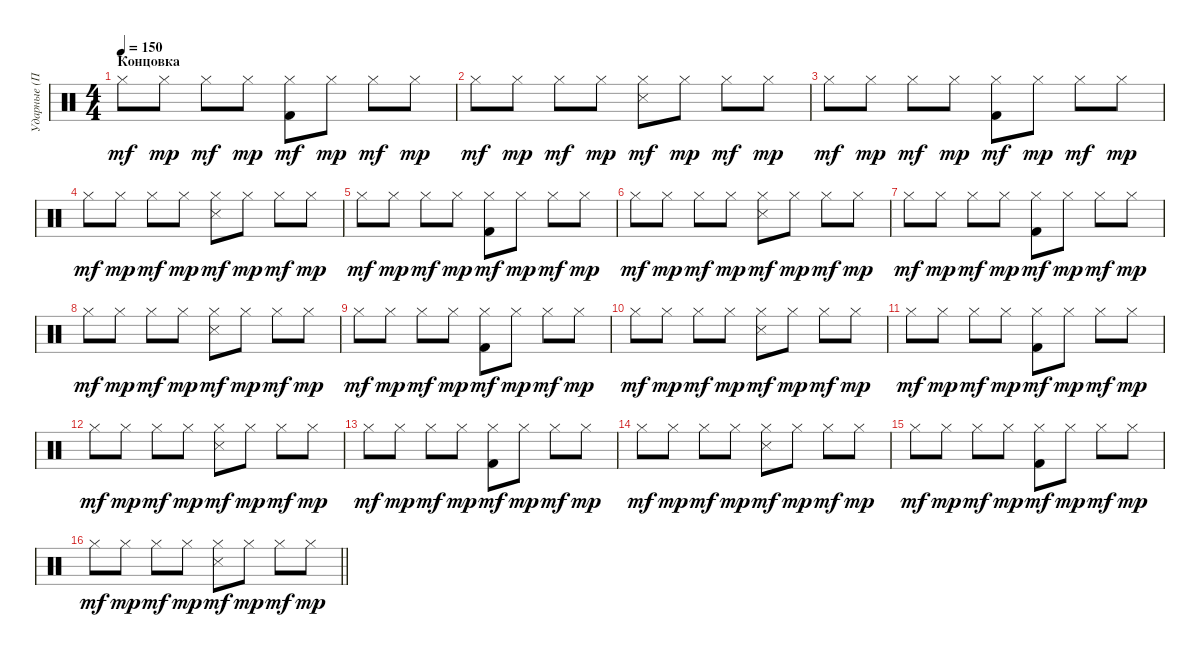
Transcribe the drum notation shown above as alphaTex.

\track ("Ударные (Поручик)" "Ударные (П") {instrument percussion}
\staff {score}
\articulation defaults
\ts (4 4)
\section ("" "Концовка")
\tempo 150
\clef neutral
\ks c "Hi-Hat (closed)".8{dy mf} "Hi-Hat (closed)".8{dy mp} "Hi-Hat (closed)".8{dy mf} "Hi-Hat (closed)".8{dy mp}
("Hi-Hat (closed)" "Kick (hit) 2").8{dy mf} "Hi-Hat (closed)".8{dy mp} "Hi-Hat (closed)".8{dy mf} "Hi-Hat (closed)".8{dy mp} |
"Hi-Hat (closed)".8{dy mf} "Hi-Hat (closed)".8{dy mp} "Hi-Hat (closed)".8{dy mf} "Hi-Hat (closed)".8{dy mp} ("Hi-Hat (closed)" "Snare (side stick) 3").8{dy mf} "Hi-Hat (closed)".8{dy mp} "Hi-Hat (closed)".8{dy mf} "Hi-Hat (closed)".8{dy mp} |
"Hi-Hat (closed)".8{dy mf} "Hi-Hat (closed)".8{dy mp} "Hi-Hat (closed)".8{dy mf} "Hi-Hat (closed)".8{dy mp} ("Hi-Hat (closed)" "Kick (hit) 2").8{dy mf} "Hi-Hat (closed)".8{dy mp} "Hi-Hat (closed)".8{dy mf} "Hi-Hat (closed)".8{dy mp} |
"Hi-Hat (closed)".8{dy mf} "Hi-Hat (closed)".8{dy mp} "Hi-Hat (closed)".8{dy mf} "Hi-Hat (closed)".8{dy mp} ("Hi-Hat (closed)" "Snare (side stick) 3").8{dy mf} "Hi-Hat (closed)".8{dy mp} "Hi-Hat (closed)".8{dy mf} "Hi-Hat (closed)".8{dy mp} |
"Hi-Hat (closed)".8{dy mf} "Hi-Hat (closed)".8{dy mp} "Hi-Hat (closed)".8{dy mf} "Hi-Hat (closed)".8{dy mp} ("Hi-Hat (closed)" "Kick (hit) 2").8{dy mf} "Hi-Hat (closed)".8{dy mp} "Hi-Hat (closed)".8{dy mf} "Hi-Hat (closed)".8{dy mp} |
"Hi-Hat (closed)".8{dy mf} "Hi-Hat (closed)".8{dy mp} "Hi-Hat (closed)".8{dy mf} "Hi-Hat (closed)".8{dy mp} ("Hi-Hat (closed)" "Snare (side stick) 3").8{dy mf} "Hi-Hat (closed)".8{dy mp} "Hi-Hat (closed)".8{dy mf} "Hi-Hat (closed)".8{dy mp} |
"Hi-Hat (closed)".8{dy mf} "Hi-Hat (closed)".8{dy mp} "Hi-Hat (closed)".8{dy mf} "Hi-Hat (closed)".8{dy mp} ("Hi-Hat (closed)" "Kick (hit) 2").8{dy mf} "Hi-Hat (closed)".8{dy mp} "Hi-Hat (closed)".8{dy mf} "Hi-Hat (closed)".8{dy mp} |
"Hi-Hat (closed)".8{dy mf} "Hi-Hat (closed)".8{dy mp} "Hi-Hat (closed)".8{dy mf} "Hi-Hat (closed)".8{dy mp} ("Hi-Hat (closed)" "Snare (side stick) 3").8{dy mf} "Hi-Hat (closed)".8{dy mp} "Hi-Hat (closed)".8{dy mf} "Hi-Hat (closed)".8{dy mp} |
"Hi-Hat (closed)".8{dy mf} "Hi-Hat (closed)".8{dy mp} "Hi-Hat (closed)".8{dy mf} "Hi-Hat (closed)".8{dy mp} ("Hi-Hat (closed)" "Kick (hit) 2").8{dy mf} "Hi-Hat (closed)".8{dy mp} "Hi-Hat (closed)".8{dy mf} "Hi-Hat (closed)".8{dy mp} |
"Hi-Hat (closed)".8{dy mf} "Hi-Hat (closed)".8{dy mp} "Hi-Hat (closed)".8{dy mf} "Hi-Hat (closed)".8{dy mp} ("Hi-Hat (closed)" "Snare (side stick) 3").8{dy mf} "Hi-Hat (closed)".8{dy mp} "Hi-Hat (closed)".8{dy mf} "Hi-Hat (closed)".8{dy mp} |
"Hi-Hat (closed)".8{dy mf} "Hi-Hat (closed)".8{dy mp} "Hi-Hat (closed)".8{dy mf} "Hi-Hat (closed)".8{dy mp} ("Hi-Hat (closed)" "Kick (hit) 2").8{dy mf} "Hi-Hat (closed)".8{dy mp} "Hi-Hat (closed)".8{dy mf} "Hi-Hat (closed)".8{dy mp} |
"Hi-Hat (closed)".8{dy mf} "Hi-Hat (closed)".8{dy mp} "Hi-Hat (closed)".8{dy mf} "Hi-Hat (closed)".8{dy mp} ("Hi-Hat (closed)" "Snare (side stick) 3").8{dy mf} "Hi-Hat (closed)".8{dy mp} "Hi-Hat (closed)".8{dy mf} "Hi-Hat (closed)".8{dy mp} |
"Hi-Hat (closed)".8{dy mf} "Hi-Hat (closed)".8{dy mp} "Hi-Hat (closed)".8{dy mf} "Hi-Hat (closed)".8{dy mp} ("Hi-Hat (closed)" "Kick (hit) 2").8{dy mf} "Hi-Hat (closed)".8{dy mp} "Hi-Hat (closed)".8{dy mf} "Hi-Hat (closed)".8{dy mp} |
"Hi-Hat (closed)".8{dy mf} "Hi-Hat (closed)".8{dy mp} "Hi-Hat (closed)".8{dy mf} "Hi-Hat (closed)".8{dy mp} ("Hi-Hat (closed)" "Snare (side stick) 3").8{dy mf} "Hi-Hat (closed)".8{dy mp} "Hi-Hat (closed)".8{dy mf} "Hi-Hat (closed)".8{dy mp} |
"Hi-Hat (closed)".8{dy mf} "Hi-Hat (closed)".8{dy mp} "Hi-Hat (closed)".8{dy mf} "Hi-Hat (closed)".8{dy mp} ("Hi-Hat (closed)" "Kick (hit) 2").8{dy mf} "Hi-Hat (closed)".8{dy mp} "Hi-Hat (closed)".8{dy mf} "Hi-Hat (closed)".8{dy mp} |
\barLineRight lightlight "Hi-Hat (closed)".8{dy mf} "Hi-Hat (closed)".8{dy mp} "Hi-Hat (closed)".8{dy mf} "Hi-Hat (closed)".8{dy mp}
("Hi-Hat (closed)" "Snare (side stick) 3").8{dy mf} "Hi-Hat (closed)".8{dy mp} "Hi-Hat (closed)".8{dy mf} "Hi-Hat (closed)".8{dy mp}
